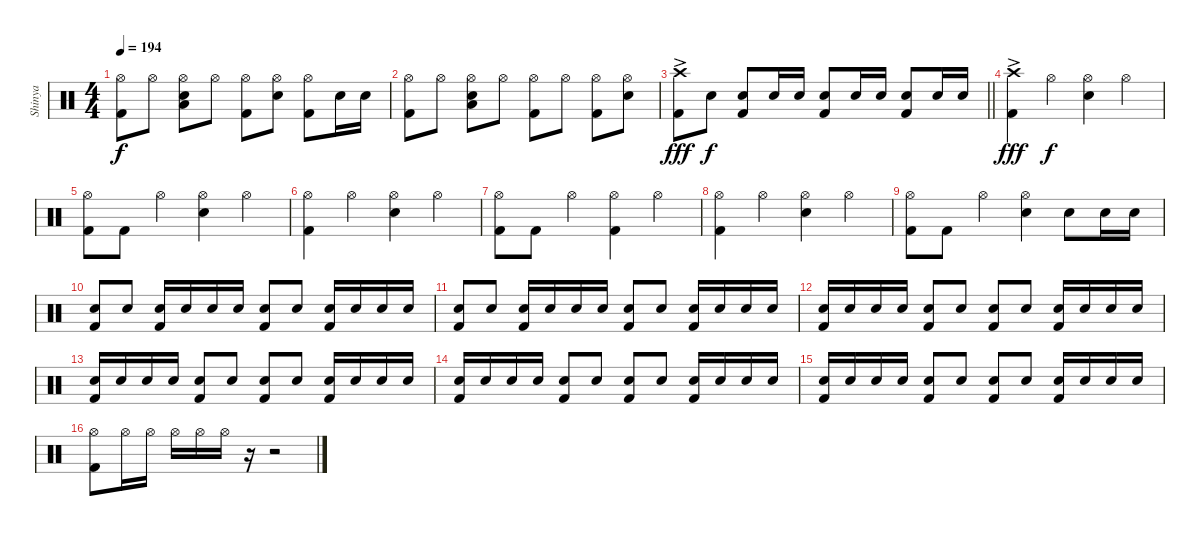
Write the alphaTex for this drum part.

\track ("Shinya" "Shinya") {instrument percussion}
\staff {score}
\articulation defaults
\ts (4 4)
\tempo 194
\clef neutral
\ks c
("Hi-Hat (open)" "Kick (hit) 2").8{dy f} "Hi-Hat (open)".8 ("Hi-Hat (open)" "Snare (hit) 2" "Low Floor Tom (hit)").8 "Hi-Hat (open)".8 ("Hi-Hat (open)" "Kick (hit) 2").8 ("Hi-Hat (open)" "Snare (hit) 2").8 ("Hi-Hat (open)" "Kick (hit) 2").8 "Snare (hit) 2".16 "Snare (hit) 2".16 |
("Hi-Hat (open)" "Kick (hit) 2").8 "Hi-Hat (open)".8 ("Hi-Hat (open)" "Snare (hit) 2" "Low Floor Tom (hit)").8 "Hi-Hat (open)".8 ("Hi-Hat (open)" "Kick (hit) 2").8 "Hi-Hat (open)".8 ("Hi-Hat (open)" "Kick (hit) 2").8 ("Hi-Hat (open)" "Snare (hit) 2").8 |
\barLineRight lightlight
("Crash high (hit)"{ac} "Kick (hit) 2").8{dy fff} "Snare (hit) 2".8{dy f} ("Snare (hit) 2" "Kick (hit) 2").8 "Snare (hit) 2".16 "Snare (hit) 2".16 ("Snare (hit) 2" "Kick (hit) 2").8 "Snare (hit) 2".16 "Snare (hit) 2".16 ("Snare (hit) 2" "Kick (hit) 2").8 "Snare (hit) 2".16 "Snare (hit) 2".16 |
("Crash high (hit)"{ac} "Kick (hit) 2").4{dy fff} "Hi-Hat (open)".4{dy f} ("Hi-Hat (open)" "Snare (hit) 2").4 "Hi-Hat (open)".4 |
("Hi-Hat (open)" "Kick (hit) 2").8 "Kick (hit) 2".8 "Hi-Hat (open)".4 ("Hi-Hat (open)" "Snare (hit) 2").4 "Hi-Hat (open)".4 |
("Hi-Hat (open)" "Kick (hit) 2").4 "Hi-Hat (open)".4 ("Hi-Hat (open)" "Snare (hit) 2").4 "Hi-Hat (open)".4 |
("Hi-Hat (open)" "Kick (hit) 2").8 "Kick (hit) 2".8 "Hi-Hat (open)".4 ("Hi-Hat (open)" "Kick (hit) 2").4 "Hi-Hat (open)".4 |
("Hi-Hat (open)" "Kick (hit) 2").4 "Hi-Hat (open)".4 ("Hi-Hat (open)" "Snare (hit) 2").4 "Hi-Hat (open)".4 |
("Hi-Hat (open)" "Kick (hit) 2").8 "Kick (hit) 2".8 "Hi-Hat (open)".4 ("Hi-Hat (open)" "Snare (hit) 2").4 "Snare (hit) 2".8 "Snare (hit) 2".16 "Snare (hit) 2".16 |
("Snare (hit) 2" "Kick (hit) 2").8 "Snare (hit) 2".8 ("Snare (hit) 2" "Kick (hit) 2").16 "Snare (hit) 2".16 "Snare (hit) 2".16 "Snare (hit) 2".16 ("Snare (hit) 2" "Kick (hit) 2").8 "Snare (hit) 2".8 ("Snare (hit) 2" "Kick (hit) 2").16 "Snare (hit) 2".16 "Snare (hit) 2".16 "Snare (hit) 2".16 |
("Snare (hit) 2" "Kick (hit) 2").8 "Snare (hit) 2".8 ("Snare (hit) 2" "Kick (hit) 2").16 "Snare (hit) 2".16 "Snare (hit) 2".16 "Snare (hit) 2".16 ("Snare (hit) 2" "Kick (hit) 2").8 "Snare (hit) 2".8 ("Snare (hit) 2" "Kick (hit) 2").16 "Snare (hit) 2".16 "Snare (hit) 2".16 "Snare (hit) 2".16 |
("Snare (hit) 2" "Kick (hit) 2").16 "Snare (hit) 2".16 "Snare (hit) 2".16 "Snare (hit) 2".16 ("Snare (hit) 2" "Kick (hit) 2").8 "Snare (hit) 2".8 ("Snare (hit) 2" "Kick (hit) 2").8 "Snare (hit) 2".8 ("Snare (hit) 2" "Kick (hit) 2").16 "Snare (hit) 2".16 "Snare (hit) 2".16 "Snare (hit) 2".16 |
("Snare (hit) 2" "Kick (hit) 2").16 "Snare (hit) 2".16 "Snare (hit) 2".16 "Snare (hit) 2".16 ("Snare (hit) 2" "Kick (hit) 2").8 "Snare (hit) 2".8 ("Snare (hit) 2" "Kick (hit) 2").8 "Snare (hit) 2".8 ("Snare (hit) 2" "Kick (hit) 2").16 "Snare (hit) 2".16 "Snare (hit) 2".16 "Snare (hit) 2".16 |
("Snare (hit) 2" "Kick (hit) 2").16 "Snare (hit) 2".16 "Snare (hit) 2".16 "Snare (hit) 2".16 ("Snare (hit) 2" "Kick (hit) 2").8 "Snare (hit) 2".8 ("Snare (hit) 2" "Kick (hit) 2").8 "Snare (hit) 2".8 ("Snare (hit) 2" "Kick (hit) 2").16 "Snare (hit) 2".16 "Snare (hit) 2".16 "Snare (hit) 2".16 |
("Snare (hit) 2" "Kick (hit) 2").16 "Snare (hit) 2".16 "Snare (hit) 2".16 "Snare (hit) 2".16 ("Snare (hit) 2" "Kick (hit) 2").8 "Snare (hit) 2".8 ("Snare (hit) 2" "Kick (hit) 2").8 "Snare (hit) 2".8 ("Snare (hit) 2" "Kick (hit) 2").16 "Snare (hit) 2".16 "Snare (hit) 2".16 "Snare (hit) 2".16 |
("Hi-Hat (open)" "Kick (hit) 2").8 "Hi-Hat (open)".16 "Hi-Hat (open)".16 "Hi-Hat (open)".16 "Hi-Hat (open)".16 "Hi-Hat (open)".16 r.16 r.2
